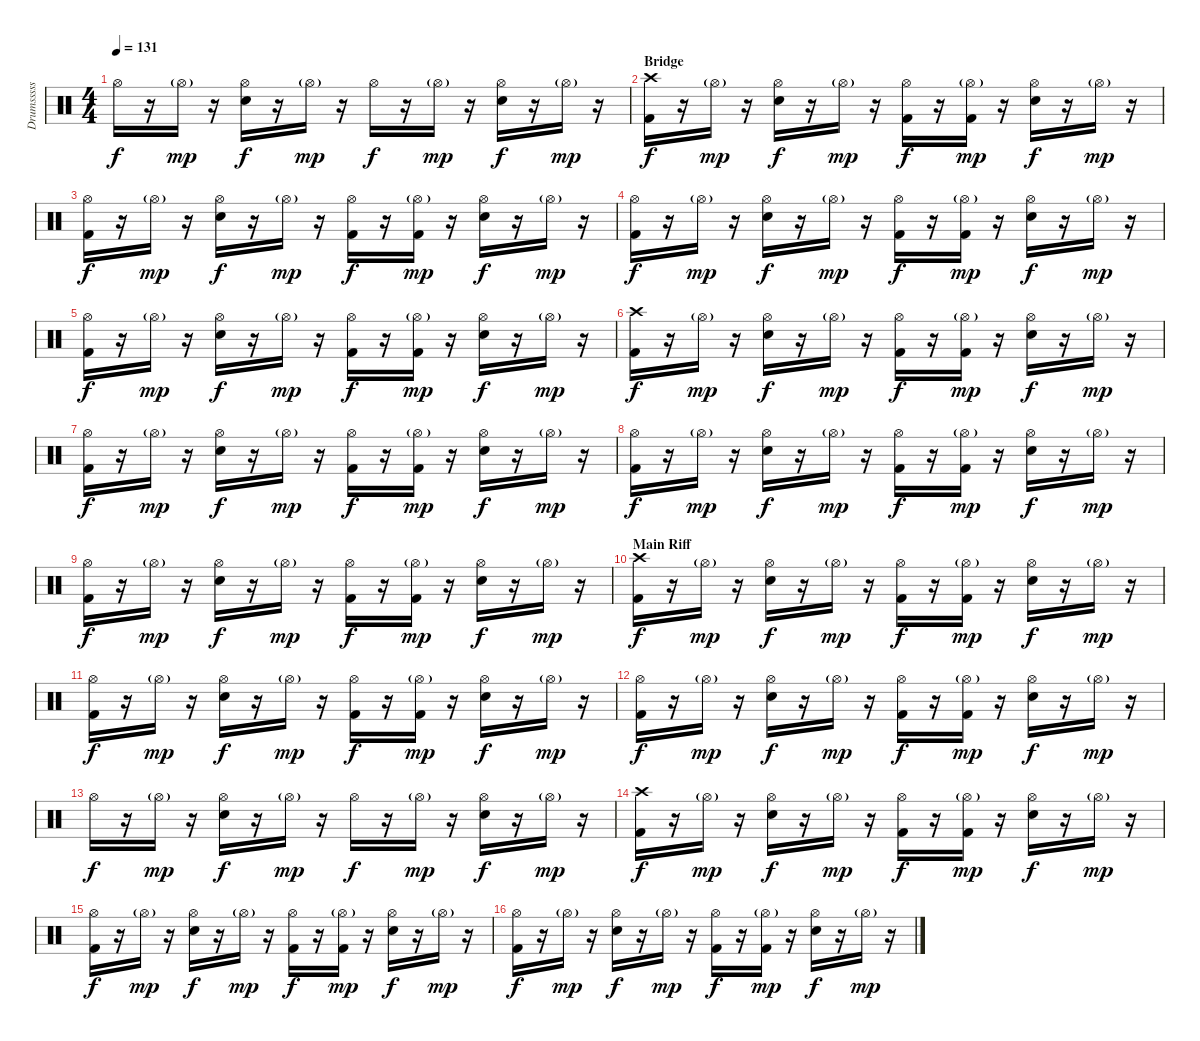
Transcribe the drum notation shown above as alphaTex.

\track ("Drumsssss" "Drumsssss") {instrument percussion}
\staff {score}
\articulation defaults
\ts (4 4)
\tempo 131
\clef neutral
\ks c "Hi-Hat (open)".16{dy f}
r.16 "Hi-Hat (open)"{g}.16{dy mp} r.16 ("Hi-Hat (open)" "Snare (hit) 2").16{dy f} r.16 "Hi-Hat (open)"{g}.16{dy mp} r.16 "Hi-Hat (open)".16{dy f} r.16 "Hi-Hat (open)"{g}.16{dy mp} r.16 ("Hi-Hat (open)" "Snare (hit) 2").16{dy f} r.16 "Hi-Hat (open)"{g}.16{dy mp} r.16 |
\section ("" "Bridge")
("Crash high (hit)" "Kick (hit) 2").16{dy f} r.16 "Hi-Hat (open)"{g}.16{dy mp} r.16 ("Hi-Hat (open)" "Snare (hit) 2").16{dy f} r.16 "Hi-Hat (open)"{g}.16{dy mp} r.16 ("Hi-Hat (open)" "Kick (hit) 2").16{dy f} r.16 ("Hi-Hat (open)"{g} "Kick (hit) 2").16{dy mp} r.16 ("Hi-Hat (open)" "Snare (hit) 2").16{dy f} r.16 "Hi-Hat (open)"{g}.16{dy mp} r.16 |
("Hi-Hat (open)" "Kick (hit) 2").16{dy f} r.16 "Hi-Hat (open)"{g}.16{dy mp} r.16 ("Hi-Hat (open)" "Snare (hit) 2").16{dy f} r.16 "Hi-Hat (open)"{g}.16{dy mp} r.16 ("Hi-Hat (open)" "Kick (hit) 2").16{dy f} r.16 ("Hi-Hat (open)"{g} "Kick (hit) 2").16{dy mp} r.16 ("Hi-Hat (open)" "Snare (hit) 2").16{dy f} r.16 "Hi-Hat (open)"{g}.16{dy mp} r.16 |
("Hi-Hat (open)" "Kick (hit) 2").16{dy f} r.16 "Hi-Hat (open)"{g}.16{dy mp} r.16 ("Hi-Hat (open)" "Snare (hit) 2").16{dy f} r.16 "Hi-Hat (open)"{g}.16{dy mp} r.16 ("Hi-Hat (open)" "Kick (hit) 2").16{dy f} r.16 ("Hi-Hat (open)"{g} "Kick (hit) 2").16{dy mp} r.16 ("Hi-Hat (open)" "Snare (hit) 2").16{dy f} r.16 "Hi-Hat (open)"{g}.16{dy mp} r.16 |
("Hi-Hat (open)" "Kick (hit) 2").16{dy f} r.16 "Hi-Hat (open)"{g}.16{dy mp} r.16 ("Hi-Hat (open)" "Snare (hit) 2").16{dy f} r.16 "Hi-Hat (open)"{g}.16{dy mp} r.16 ("Hi-Hat (open)" "Kick (hit) 2").16{dy f} r.16 ("Hi-Hat (open)"{g} "Kick (hit) 2").16{dy mp} r.16 ("Hi-Hat (open)" "Snare (hit) 2").16{dy f} r.16 "Hi-Hat (open)"{g}.16{dy mp} r.16 |
("Crash high (hit)" "Kick (hit) 2").16{dy f} r.16 "Hi-Hat (open)"{g}.16{dy mp} r.16 ("Hi-Hat (open)" "Snare (hit) 2").16{dy f} r.16 "Hi-Hat (open)"{g}.16{dy mp} r.16 ("Hi-Hat (open)" "Kick (hit) 2").16{dy f} r.16 ("Hi-Hat (open)"{g} "Kick (hit) 2").16{dy mp} r.16 ("Hi-Hat (open)" "Snare (hit) 2").16{dy f} r.16 "Hi-Hat (open)"{g}.16{dy mp} r.16 |
("Hi-Hat (open)" "Kick (hit) 2").16{dy f} r.16 "Hi-Hat (open)"{g}.16{dy mp} r.16 ("Hi-Hat (open)" "Snare (hit) 2").16{dy f} r.16 "Hi-Hat (open)"{g}.16{dy mp} r.16 ("Hi-Hat (open)" "Kick (hit) 2").16{dy f} r.16 ("Hi-Hat (open)"{g} "Kick (hit) 2").16{dy mp} r.16 ("Hi-Hat (open)" "Snare (hit) 2").16{dy f} r.16 "Hi-Hat (open)"{g}.16{dy mp} r.16 |
("Hi-Hat (open)" "Kick (hit) 2").16{dy f} r.16 "Hi-Hat (open)"{g}.16{dy mp} r.16 ("Hi-Hat (open)" "Snare (hit) 2").16{dy f} r.16 "Hi-Hat (open)"{g}.16{dy mp} r.16 ("Hi-Hat (open)" "Kick (hit) 2").16{dy f} r.16 ("Hi-Hat (open)"{g} "Kick (hit) 2").16{dy mp} r.16 ("Hi-Hat (open)" "Snare (hit) 2").16{dy f} r.16 "Hi-Hat (open)"{g}.16{dy mp} r.16 |
("Hi-Hat (open)" "Kick (hit) 2").16{dy f} r.16 "Hi-Hat (open)"{g}.16{dy mp} r.16 ("Hi-Hat (open)" "Snare (hit) 2").16{dy f} r.16 "Hi-Hat (open)"{g}.16{dy mp} r.16 ("Hi-Hat (open)" "Kick (hit) 2").16{dy f} r.16 ("Hi-Hat (open)"{g} "Kick (hit) 2").16{dy mp} r.16 ("Hi-Hat (open)" "Snare (hit) 2").16{dy f} r.16 "Hi-Hat (open)"{g}.16{dy mp} r.16 |
\section ("" "Main Riff")
("Crash high (hit)" "Kick (hit) 2").16{dy f} r.16 "Hi-Hat (open)"{g}.16{dy mp} r.16 ("Hi-Hat (open)" "Snare (hit) 2").16{dy f} r.16 "Hi-Hat (open)"{g}.16{dy mp} r.16 ("Hi-Hat (open)" "Kick (hit) 2").16{dy f} r.16 ("Hi-Hat (open)"{g} "Kick (hit) 2").16{dy mp} r.16 ("Hi-Hat (open)" "Snare (hit) 2").16{dy f} r.16 "Hi-Hat (open)"{g}.16{dy mp} r.16 |
("Hi-Hat (open)" "Kick (hit) 2").16{dy f} r.16 "Hi-Hat (open)"{g}.16{dy mp} r.16 ("Hi-Hat (open)" "Snare (hit) 2").16{dy f} r.16 "Hi-Hat (open)"{g}.16{dy mp} r.16 ("Hi-Hat (open)" "Kick (hit) 2").16{dy f} r.16 ("Hi-Hat (open)"{g} "Kick (hit) 2").16{dy mp} r.16 ("Hi-Hat (open)" "Snare (hit) 2").16{dy f} r.16 "Hi-Hat (open)"{g}.16{dy mp} r.16 |
("Hi-Hat (open)" "Kick (hit) 2").16{dy f} r.16 "Hi-Hat (open)"{g}.16{dy mp} r.16 ("Hi-Hat (open)" "Snare (hit) 2").16{dy f} r.16 "Hi-Hat (open)"{g}.16{dy mp} r.16 ("Hi-Hat (open)" "Kick (hit) 2").16{dy f} r.16 ("Hi-Hat (open)"{g} "Kick (hit) 2").16{dy mp} r.16 ("Hi-Hat (open)" "Snare (hit) 2").16{dy f} r.16 "Hi-Hat (open)"{g}.16{dy mp} r.16 |
"Hi-Hat (open)".16{dy f} r.16 "Hi-Hat (open)"{g}.16{dy mp} r.16 ("Hi-Hat (open)" "Snare (hit) 2").16{dy f} r.16 "Hi-Hat (open)"{g}.16{dy mp} r.16 "Hi-Hat (open)".16{dy f} r.16 "Hi-Hat (open)"{g}.16{dy mp} r.16 ("Hi-Hat (open)" "Snare (hit) 2").16{dy f} r.16 "Hi-Hat (open)"{g}.16{dy mp} r.16 |
("Crash high (hit)" "Kick (hit) 2").16{dy f} r.16 "Hi-Hat (open)"{g}.16{dy mp} r.16 ("Hi-Hat (open)" "Snare (hit) 2").16{dy f} r.16 "Hi-Hat (open)"{g}.16{dy mp} r.16 ("Hi-Hat (open)" "Kick (hit) 2").16{dy f} r.16 ("Hi-Hat (open)"{g} "Kick (hit) 2").16{dy mp} r.16 ("Hi-Hat (open)" "Snare (hit) 2").16{dy f} r.16 "Hi-Hat (open)"{g}.16{dy mp} r.16 |
("Hi-Hat (open)" "Kick (hit) 2").16{dy f} r.16 "Hi-Hat (open)"{g}.16{dy mp} r.16 ("Hi-Hat (open)" "Snare (hit) 2").16{dy f} r.16 "Hi-Hat (open)"{g}.16{dy mp} r.16 ("Hi-Hat (open)" "Kick (hit) 2").16{dy f} r.16 ("Hi-Hat (open)"{g} "Kick (hit) 2").16{dy mp} r.16 ("Hi-Hat (open)" "Snare (hit) 2").16{dy f} r.16 "Hi-Hat (open)"{g}.16{dy mp} r.16 |
("Hi-Hat (open)" "Kick (hit) 2").16{dy f} r.16 "Hi-Hat (open)"{g}.16{dy mp} r.16 ("Hi-Hat (open)" "Snare (hit) 2").16{dy f} r.16 "Hi-Hat (open)"{g}.16{dy mp} r.16 ("Hi-Hat (open)" "Kick (hit) 2").16{dy f} r.16 ("Hi-Hat (open)"{g} "Kick (hit) 2").16{dy mp} r.16 ("Hi-Hat (open)" "Snare (hit) 2").16{dy f} r.16 "Hi-Hat (open)"{g}.16{dy mp} r.16
